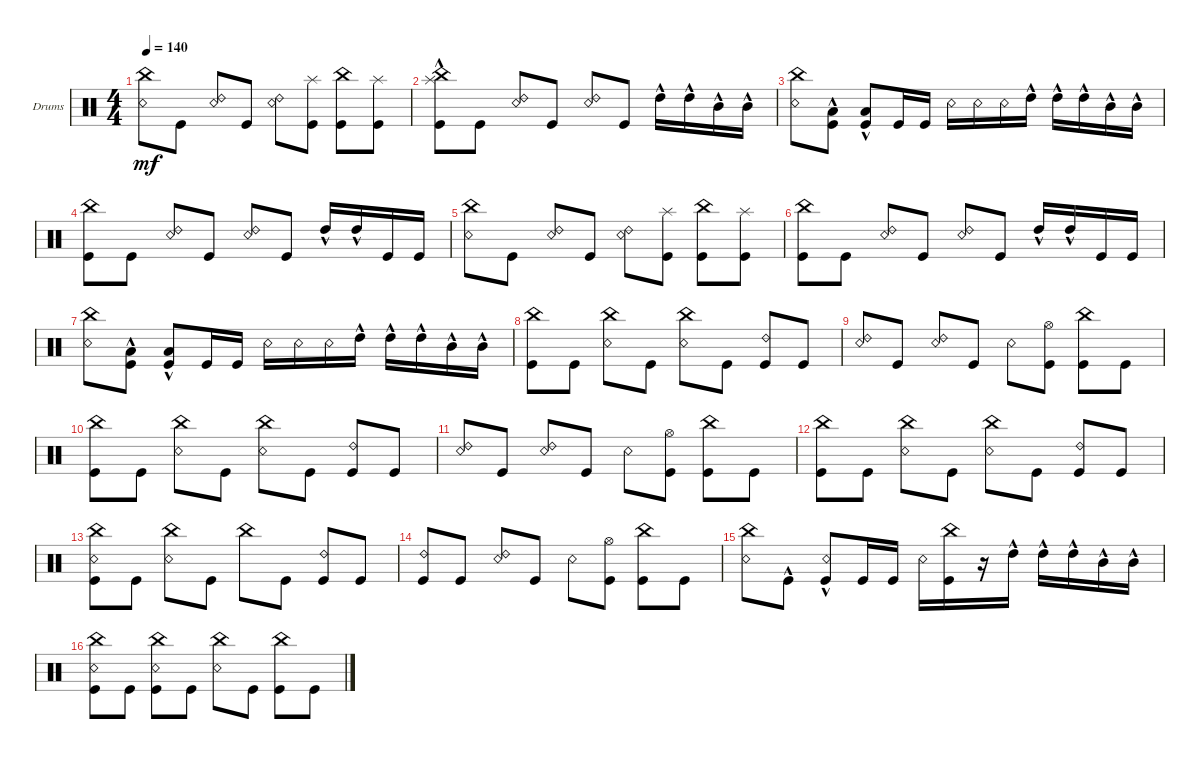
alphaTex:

\defaultSystemsLayout 4
\bracketExtendMode groupsimilarinstruments
\firstSystemTrackNameOrientation horizontal
\otherSystemsTrackNameOrientation horizontal
\track ("Drumkit" "Drums") {instrument percussion}
\staff {score}
\articulation defaults
\ts (4 4)
\tempo 140
\clef neutral
\ks c
("China (hit)" "Snare (rim shot)").8{dy mf} "Kick (hit)".8 ("Snare (rim shot)" "Ride (bell) 2").8 "Kick (hit)".8 ("Snare (rim shot)" "Ride (bell) 2").8 ("Kick (hit)" "Splash (hit)").8 ("China (hit)" "Kick (hit)").8 ("Kick (hit)" "Splash (hit)").8 |
("Kick (hit)" "China (hit)" "Splash (hit)"{hac}).8 "Kick (hit)".8 ("Snare (rim shot)" "Ride (bell) 2").8 "Kick (hit)".8 ("Snare (rim shot)" "Ride (bell) 2").8 "Kick (hit)".8 "High Tom (hit)"{hac}.16 "High Tom (hit)"{hac}.16 "Mid Tom (hit)"{hac}.16 "Mid Tom (hit)"{hac}.16 |
("Snare (rim shot)" "China (hit)").8 ("Kick (hit)"{hac} "Low Tom (hit)"{hac}).8 ("Kick (hit)"{hac} "Low Tom (hit)"{hac}).8 "Kick (hit)".16 "Kick (hit)".16 "Snare (rim shot)".16 "Snare (rim shot)".16 "Snare (rim shot)".16 "High Tom (hit)"{hac}.16 "High Tom (hit)"{hac}.16 "High Tom (hit)"{hac}.16 "Mid Tom (hit)"{hac}.16 "Mid Tom (hit)"{hac}.16 |
("China (hit)" "Kick (hit)").8 "Kick (hit)".8 ("Snare (rim shot)" "Ride (bell) 2").8 "Kick (hit)".8 ("Snare (rim shot)" "Ride (bell) 2").8 "Kick (hit)".8 "High Tom (hit)"{hac}.16 "High Tom (hit)"{hac}.16 "Kick (hit)".16 "Kick (hit)".16 |
("China (hit)" "Snare (rim shot)").8 "Kick (hit)".8 ("Snare (rim shot)" "Ride (bell) 2").8 "Kick (hit)".8 ("Snare (rim shot)" "Ride (bell) 2").8 ("Kick (hit)" "Splash (hit)").8 ("China (hit)" "Kick (hit)").8 ("Kick (hit)" "Splash (hit)").8 |
("China (hit)" "Kick (hit)").8 "Kick (hit)".8 ("Snare (rim shot)" "Ride (bell) 2").8 "Kick (hit)".8 ("Snare (rim shot)" "Ride (bell) 2").8 "Kick (hit)".8 "High Tom (hit)"{hac}.16 "High Tom (hit)"{hac}.16 "Kick (hit)".16 "Kick (hit)".16 |
("Snare (rim shot)" "China (hit)").8 ("Kick (hit)"{hac} "Low Tom (hit)"{hac}).8 ("Kick (hit)"{hac} "Low Tom (hit)"{hac}).8 "Kick (hit)".16 "Kick (hit)".16 "Snare (rim shot)".16 "Snare (rim shot)".16 "Snare (rim shot)".16 "High Tom (hit)"{hac}.16 "High Tom (hit)"{hac}.16 "High Tom (hit)"{hac}.16 "Mid Tom (hit)"{hac}.16 "Mid Tom (hit)"{hac}.16 |
("China (hit)" "Kick (hit)").8 "Kick (hit)".8 ("Snare (rim shot)" "China (hit)").8 "Kick (hit)".8 ("Snare (rim shot)" "China (hit)").8 "Kick (hit)".8 ("Kick (hit)" "Ride (bell) 2").8 "Kick (hit)".8 |
("Snare (rim shot)" "Ride (bell) 2").8 "Kick (hit)".8 ("Snare (rim shot)" "Ride (bell) 2").8 "Kick (hit)".8 "Snare (rim shot)".8 ("Hi-Hat (open)" "Kick (hit)").8 ("China (hit)" "Kick (hit)").8 "Kick (hit)".8 |
("China (hit)" "Kick (hit)").8 "Kick (hit)".8 ("Snare (rim shot)" "China (hit)").8 "Kick (hit)".8 ("Snare (rim shot)" "China (hit)").8 "Kick (hit)".8 ("Kick (hit)" "Ride (bell) 2").8 "Kick (hit)".8 |
("Snare (rim shot)" "Ride (bell) 2").8 "Kick (hit)".8 ("Snare (rim shot)" "Ride (bell) 2").8 "Kick (hit)".8 "Snare (rim shot)".8 ("Hi-Hat (open)" "Kick (hit)").8 ("China (hit)" "Kick (hit)").8 "Kick (hit)".8 |
("China (hit)" "Kick (hit)").8 "Kick (hit)".8 ("Snare (rim shot)" "China (hit)").8 "Kick (hit)".8 ("Snare (rim shot)" "China (hit)").8 "Kick (hit)".8 ("Kick (hit)" "Ride (bell) 2").8 "Kick (hit)".8 |
("China (hit)" "Kick (hit)" "Snare (rim shot)").8 "Kick (hit)".8 ("China (hit)" "Snare (rim shot)").8 "Kick (hit)".8 "China (hit)".8 "Kick (hit)".8 ("Kick (hit)" "Ride (bell) 2").8 "Kick (hit)".8 |
("Ride (bell) 2" "Kick (hit)").8 "Kick (hit)".8 ("Snare (rim shot)" "Ride (bell) 2").8 "Kick (hit)".8 "Snare (rim shot)".8 ("Hi-Hat (open)" "Kick (hit)").8 ("China (hit)" "Kick (hit)").8 "Kick (hit)".8 |
("Snare (rim shot)" "China (hit)").8 "Kick (hit)"{hac}.8 ("Kick (hit)"{hac} "Snare (rim shot)").8 "Kick (hit)".16 "Kick (hit)".16 "Snare (rim shot)".16 ("China (hit)" "Kick (hit)").16 r.16 "High Tom (hit)"{hac}.16 "High Tom (hit)"{hac}.16 "High Tom (hit)"{hac}.16 "Mid Tom (hit)"{hac}.16 "Mid Tom (hit)"{hac}.16 |
("China (hit)" "Snare (rim shot)" "Kick (hit)").8 "Kick (hit)".8 ("Snare (rim shot)" "China (hit)" "Kick (hit)").8 "Kick (hit)".8 ("Snare (rim shot)" "China (hit)").8 "Kick (hit)".8 ("Kick (hit)" "China (hit)").8 "Kick (hit)".8
